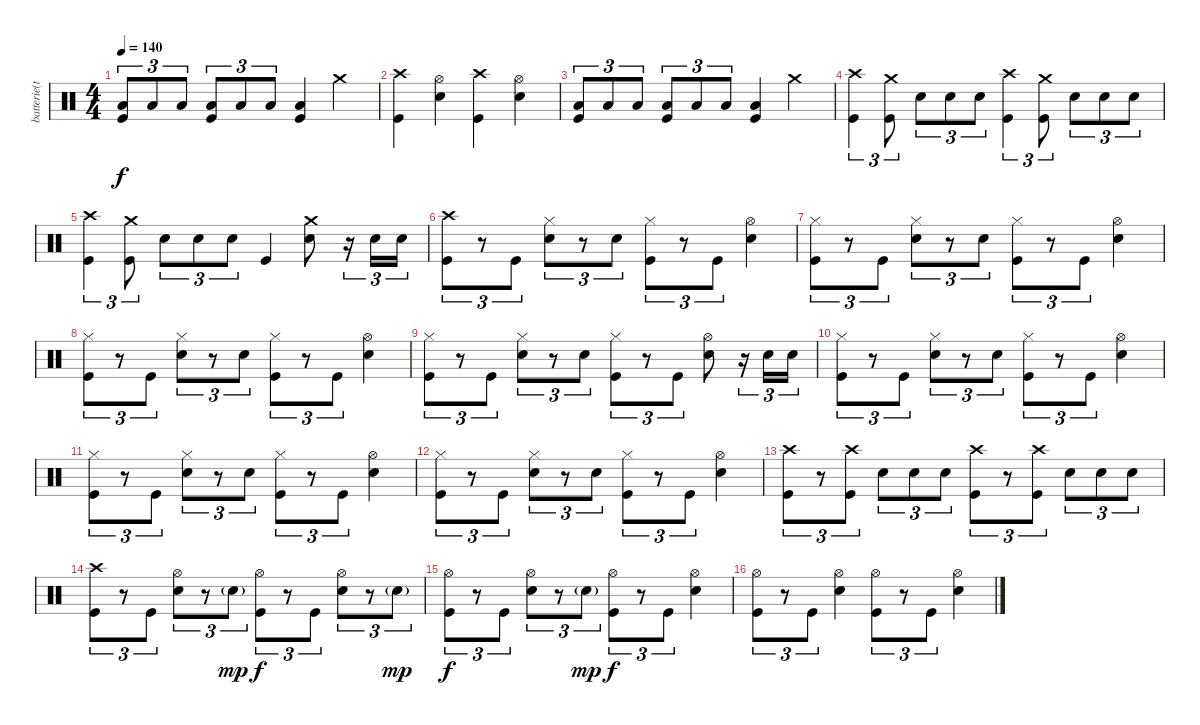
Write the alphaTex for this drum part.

\track ("batterie(tré)" "batterie(t") {instrument percussion}
\staff {score}
\articulation defaults
\ts (4 4)
\tempo 140
\clef neutral
\ks c
("Low Floor Tom (hit)" "Kick (hit)").8{tu (3 2) dy f} "Low Floor Tom (hit)".8{tu (3 2)} "Low Floor Tom (hit)".8{tu (3 2)} ("Low Floor Tom (hit)" "Kick (hit)").8{tu (3 2)} "Low Floor Tom (hit)".8{tu (3 2)} "Low Floor Tom (hit)".8{tu (3 2)} ("Low Floor Tom (hit)" "Kick (hit)").4 "Crash medium (hit)".4 |
("Crash high (hit)" "Kick (hit)").4 ("Hi-Hat (open)" "Electric Snare (hit)").4 ("Crash high (hit)" "Kick (hit)").4 ("Hi-Hat (open)" "Electric Snare (hit)").4 |
("Low Floor Tom (hit)" "Kick (hit)").8{tu (3 2)} "Low Floor Tom (hit)".8{tu (3 2)} "Low Floor Tom (hit)".8{tu (3 2)} ("Low Floor Tom (hit)" "Kick (hit)").8{tu (3 2)} "Low Floor Tom (hit)".8{tu (3 2)} "Low Floor Tom (hit)".8{tu (3 2)} ("Low Floor Tom (hit)" "Kick (hit)").4 "Crash medium (hit)".4 |
("Crash high (hit)" "Kick (hit)").4{tu (3 2)} ("Crash medium (hit)" "Kick (hit)").8{tu (3 2)} "Electric Snare (hit)".8{tu (3 2)} "Electric Snare (hit)".8{tu (3 2)} "Electric Snare (hit)".8{tu (3 2)} ("Crash high (hit)" "Kick (hit)").4{tu (3 2)} ("Crash medium (hit)" "Kick (hit)").8{tu (3 2)} "Electric Snare (hit)".8{tu (3 2)} "Electric Snare (hit)".8{tu (3 2)} "Electric Snare (hit)".8{tu (3 2)} |
("Crash high (hit)" "Kick (hit)").4{tu (3 2)} ("Crash medium (hit)" "Kick (hit)").8{tu (3 2)} "Electric Snare (hit)".8{tu (3 2)} "Electric Snare (hit)".8{tu (3 2)} "Electric Snare (hit)".8{tu (3 2)} "Kick (hit)".4 ("Crash medium (hit)" "Electric Snare (hit)").8 r.16{tu (3 2)} "Electric Snare (hit)".16{tu (3 2)} "Electric Snare (hit)".16{tu (3 2)} |
("Crash high (hit)" "Kick (hit)").8{tu (3 2)} r.8{tu (3 2)} "Kick (hit)".8{tu (3 2)} ("Hi-Hat (closed)" "Electric Snare (hit)").8{tu (3 2)} r.8{tu (3 2)} "Electric Snare (hit)".8{tu (3 2)} ("Hi-Hat (closed)" "Kick (hit)").8{tu (3 2)} r.8{tu (3 2)} "Kick (hit)".8{tu (3 2)} ("Hi-Hat (open)" "Electric Snare (hit)").4 |
("Hi-Hat (closed)" "Kick (hit)").8{tu (3 2)} r.8{tu (3 2)} "Kick (hit)".8{tu (3 2)} ("Hi-Hat (closed)" "Electric Snare (hit)").8{tu (3 2)} r.8{tu (3 2)} "Electric Snare (hit)".8{tu (3 2)} ("Hi-Hat (closed)" "Kick (hit)").8{tu (3 2)} r.8{tu (3 2)} "Kick (hit)".8{tu (3 2)} ("Hi-Hat (open)" "Electric Snare (hit)").4 |
("Hi-Hat (closed)" "Kick (hit)").8{tu (3 2)} r.8{tu (3 2)} "Kick (hit)".8{tu (3 2)} ("Hi-Hat (closed)" "Electric Snare (hit)").8{tu (3 2)} r.8{tu (3 2)} "Electric Snare (hit)".8{tu (3 2)} ("Hi-Hat (closed)" "Kick (hit)").8{tu (3 2)} r.8{tu (3 2)} "Kick (hit)".8{tu (3 2)} ("Hi-Hat (open)" "Electric Snare (hit)").4 |
("Hi-Hat (closed)" "Kick (hit)").8{tu (3 2)} r.8{tu (3 2)} "Kick (hit)".8{tu (3 2)} ("Hi-Hat (closed)" "Electric Snare (hit)").8{tu (3 2)} r.8{tu (3 2)} "Electric Snare (hit)".8{tu (3 2)} ("Hi-Hat (closed)" "Kick (hit)").8{tu (3 2)} r.8{tu (3 2)} "Kick (hit)".8{tu (3 2)} ("Hi-Hat (open)" "Electric Snare (hit)").8 r.16{tu (3 2)} "Electric Snare (hit)".16{tu (3 2)} "Electric Snare (hit)".16{tu (3 2)} |
("Hi-Hat (closed)" "Kick (hit)").8{tu (3 2)} r.8{tu (3 2)} "Kick (hit)".8{tu (3 2)} ("Hi-Hat (closed)" "Electric Snare (hit)").8{tu (3 2)} r.8{tu (3 2)} "Electric Snare (hit)".8{tu (3 2)} ("Hi-Hat (closed)" "Kick (hit)").8{tu (3 2)} r.8{tu (3 2)} "Kick (hit)".8{tu (3 2)} ("Hi-Hat (open)" "Electric Snare (hit)").4 |
("Hi-Hat (closed)" "Kick (hit)").8{tu (3 2)} r.8{tu (3 2)} "Kick (hit)".8{tu (3 2)} ("Hi-Hat (closed)" "Electric Snare (hit)").8{tu (3 2)} r.8{tu (3 2)} "Electric Snare (hit)".8{tu (3 2)} ("Hi-Hat (closed)" "Kick (hit)").8{tu (3 2)} r.8{tu (3 2)} "Kick (hit)".8{tu (3 2)} ("Hi-Hat (open)" "Electric Snare (hit)").4 |
("Hi-Hat (closed)" "Kick (hit)").8{tu (3 2)} r.8{tu (3 2)} "Kick (hit)".8{tu (3 2)} ("Hi-Hat (closed)" "Electric Snare (hit)").8{tu (3 2)} r.8{tu (3 2)} "Electric Snare (hit)".8{tu (3 2)} ("Hi-Hat (closed)" "Kick (hit)").8{tu (3 2)} r.8{tu (3 2)} "Kick (hit)".8{tu (3 2)} ("Hi-Hat (open)" "Electric Snare (hit)").4 |
("Crash high (hit)" "Kick (hit)").8{tu (3 2)} r.8{tu (3 2)} ("Crash high (hit)" "Kick (hit)").8{tu (3 2)} "Electric Snare (hit)".8{tu (3 2)} "Electric Snare (hit)".8{tu (3 2)} "Electric Snare (hit)".8{tu (3 2)} ("Crash high (hit)" "Kick (hit)").8{tu (3 2)} r.8{tu (3 2)} ("Crash high (hit)" "Kick (hit)").8{tu (3 2)} "Electric Snare (hit)".8{tu (3 2)} "Electric Snare (hit)".8{tu (3 2)} "Electric Snare (hit)".8{tu (3 2)} |
("Crash high (hit)" "Kick (hit)").8{tu (3 2)} r.8{tu (3 2)} "Kick (hit)".8{tu (3 2)} ("Hi-Hat (open)" "Electric Snare (hit)").8{tu (3 2)} r.8{tu (3 2)} "Electric Snare (hit)"{g}.8{tu (3 2) dy mp} ("Hi-Hat (open)" "Kick (hit)").8{tu (3 2) dy f} r.8{tu (3 2)} "Kick (hit)".8{tu (3 2)} ("Hi-Hat (open)" "Electric Snare (hit)").8{tu (3 2)} r.8{tu (3 2)} "Electric Snare (hit)"{g}.8{tu (3 2) dy mp} |
("Hi-Hat (open)" "Kick (hit)").8{tu (3 2) dy f} r.8{tu (3 2)} "Kick (hit)".8{tu (3 2)} ("Hi-Hat (open)" "Electric Snare (hit)").8{tu (3 2)} r.8{tu (3 2)} "Electric Snare (hit)"{g}.8{tu (3 2) dy mp} ("Hi-Hat (open)" "Kick (hit)").8{tu (3 2) dy f} r.8{tu (3 2)} "Kick (hit)".8{tu (3 2)} ("Hi-Hat (open)" "Electric Snare (hit)").4 |
("Hi-Hat (open)" "Kick (hit)").8{tu (3 2)} r.8{tu (3 2)} "Kick (hit)".8{tu (3 2)} ("Hi-Hat (open)" "Electric Snare (hit)").4 ("Hi-Hat (open)" "Kick (hit)").8{tu (3 2)} r.8{tu (3 2)} "Kick (hit)".8{tu (3 2)} ("Hi-Hat (open)" "Electric Snare (hit)").4
